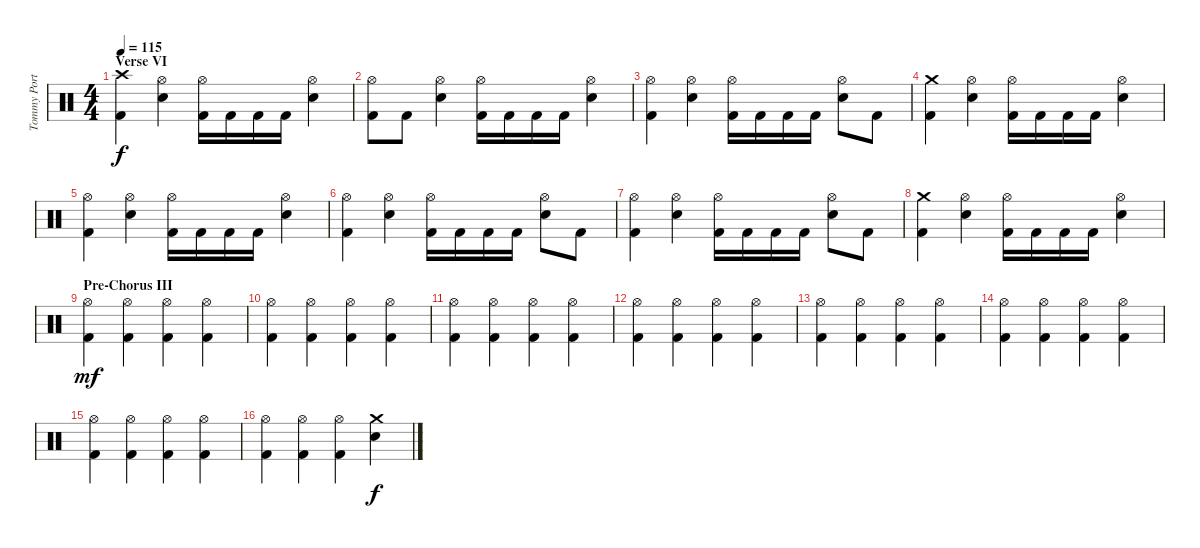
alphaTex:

\track ("Tommy Portino - Drums" "Tommy Port") {instrument percussion}
\staff {score}
\articulation defaults
\ts (4 4)
\section ("" "Verse VI")
\tempo 115
\clef neutral
\ks c
("Crash high (hit)" "Kick (hit) 2").4{dy f} ("Hi-Hat (open)" "Electric Snare (hit)").4 ("Hi-Hat (open)" "Kick (hit) 2").16 "Kick (hit) 2".16 "Kick (hit) 2".16 "Kick (hit) 2".16 ("Hi-Hat (open)" "Electric Snare (hit)").4 |
("Hi-Hat (open)" "Kick (hit) 2").8 "Kick (hit) 2".8 ("Hi-Hat (open)" "Electric Snare (hit)").4 ("Hi-Hat (open)" "Kick (hit) 2").16 "Kick (hit) 2".16 "Kick (hit) 2".16 "Kick (hit) 2".16 ("Hi-Hat (open)" "Electric Snare (hit)").4 |
("Hi-Hat (open)" "Kick (hit) 2").4 ("Hi-Hat (open)" "Electric Snare (hit)").4 ("Hi-Hat (open)" "Kick (hit) 2").16 "Kick (hit) 2".16 "Kick (hit) 2".16 "Kick (hit) 2".16 ("Hi-Hat (open)" "Electric Snare (hit)").8 "Kick (hit) 2".8 |
("Crash medium (hit)" "Kick (hit) 2").4 ("Hi-Hat (open)" "Electric Snare (hit)").4 ("Hi-Hat (open)" "Kick (hit) 2").16 "Kick (hit) 2".16 "Kick (hit) 2".16 "Kick (hit) 2".16 ("Hi-Hat (open)" "Electric Snare (hit)").4 |
("Hi-Hat (open)" "Kick (hit) 2").4 ("Hi-Hat (open)" "Electric Snare (hit)").4 ("Hi-Hat (open)" "Kick (hit) 2").16 "Kick (hit) 2".16 "Kick (hit) 2".16 "Kick (hit) 2".16 ("Hi-Hat (open)" "Electric Snare (hit)").4 |
("Hi-Hat (open)" "Kick (hit) 2").4 ("Hi-Hat (open)" "Electric Snare (hit)").4 ("Hi-Hat (open)" "Kick (hit) 2").16 "Kick (hit) 2".16 "Kick (hit) 2".16 "Kick (hit) 2".16 ("Hi-Hat (open)" "Electric Snare (hit)").8 "Kick (hit) 2".8 |
("Hi-Hat (open)" "Kick (hit) 2").4 ("Hi-Hat (open)" "Electric Snare (hit)").4 ("Hi-Hat (open)" "Kick (hit) 2").16 "Kick (hit) 2".16 "Kick (hit) 2".16 "Kick (hit) 2".16 ("Hi-Hat (open)" "Electric Snare (hit)").8 "Kick (hit) 2".8 |
("Crash medium (hit)" "Kick (hit) 2").4 ("Hi-Hat (open)" "Electric Snare (hit)").4 ("Hi-Hat (open)" "Kick (hit) 2").16 "Kick (hit) 2".16 "Kick (hit) 2".16 "Kick (hit) 2".16 ("Hi-Hat (open)" "Electric Snare (hit)").4 |
\section ("" "Pre-Chorus III")
("Hi-Hat (open)" "Kick (hit) 2").4{dy mf} ("Hi-Hat (open)" "Kick (hit) 2").4 ("Hi-Hat (open)" "Kick (hit) 2").4 ("Hi-Hat (open)" "Kick (hit) 2").4 |
("Hi-Hat (open)" "Kick (hit) 2").4 ("Hi-Hat (open)" "Kick (hit) 2").4 ("Hi-Hat (open)" "Kick (hit) 2").4 ("Hi-Hat (open)" "Kick (hit) 2").4 |
("Hi-Hat (open)" "Kick (hit) 2").4 ("Hi-Hat (open)" "Kick (hit) 2").4 ("Hi-Hat (open)" "Kick (hit) 2").4 ("Hi-Hat (open)" "Kick (hit) 2").4 |
("Hi-Hat (open)" "Kick (hit) 2").4 ("Hi-Hat (open)" "Kick (hit) 2").4 ("Hi-Hat (open)" "Kick (hit) 2").4 ("Hi-Hat (open)" "Kick (hit) 2").4 |
("Hi-Hat (open)" "Kick (hit) 2").4 ("Hi-Hat (open)" "Kick (hit) 2").4 ("Hi-Hat (open)" "Kick (hit) 2").4 ("Hi-Hat (open)" "Kick (hit) 2").4 |
("Hi-Hat (open)" "Kick (hit) 2").4 ("Hi-Hat (open)" "Kick (hit) 2").4 ("Hi-Hat (open)" "Kick (hit) 2").4 ("Hi-Hat (open)" "Kick (hit) 2").4 |
("Hi-Hat (open)" "Kick (hit) 2").4 ("Hi-Hat (open)" "Kick (hit) 2").4 ("Hi-Hat (open)" "Kick (hit) 2").4 ("Hi-Hat (open)" "Kick (hit) 2").4 |
("Hi-Hat (open)" "Kick (hit) 2").4 ("Hi-Hat (open)" "Kick (hit) 2").4 ("Hi-Hat (open)" "Kick (hit) 2").4 ("Crash medium (hit)" "Electric Snare (hit)").4{dy f}
